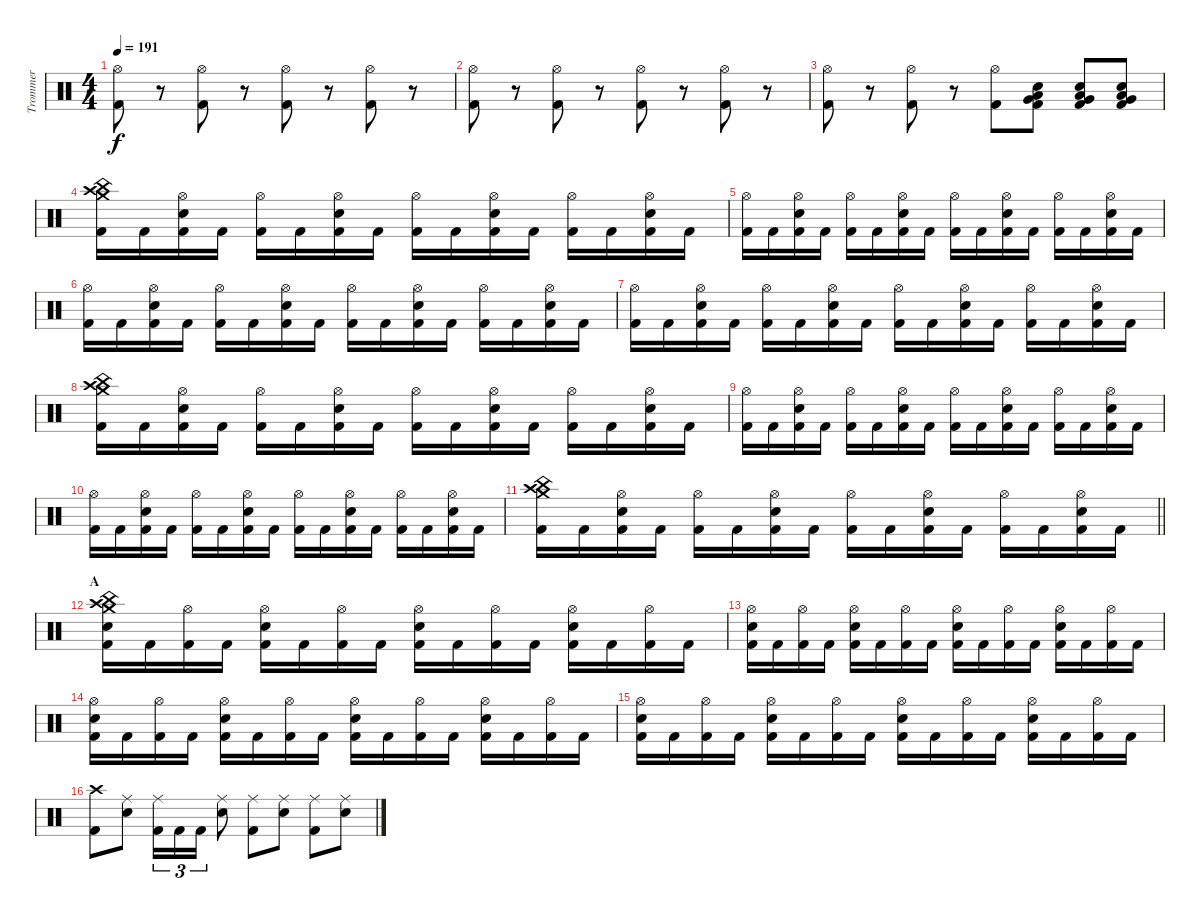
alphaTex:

\track ("Trommer" "Trommer") {instrument percussion}
\staff {score}
\articulation defaults
\ts (4 4)
\tempo 191
\clef neutral
\ks c
("Hi-Hat (open)" "Kick (hit) 2").8{dy f} r.8 ("Hi-Hat (open)" "Kick (hit) 2").8 r.8 ("Hi-Hat (open)" "Kick (hit) 2").8 r.8 ("Hi-Hat (open)" "Kick (hit) 2").8 r.8 |
("Hi-Hat (open)" "Kick (hit) 2").8 r.8 ("Hi-Hat (open)" "Kick (hit) 2").8 r.8 ("Hi-Hat (open)" "Kick (hit) 2").8 r.8 ("Hi-Hat (open)" "Kick (hit) 2").8 r.8 |
("Hi-Hat (open)" "Kick (hit) 2").8 r.8 ("Hi-Hat (open)" "Kick (hit) 2").8 r.8 ("Hi-Hat (open)" "Kick (hit) 2").8 ("Low Floor Tom (hit)" "Very Low Tom (hit)" "Snare (hit) 2" "Kick (hit) 2").8 ("Low Floor Tom (hit)" "Very Low Tom (hit)" "Snare (hit) 2" "Kick (hit) 2").8 ("Low Floor Tom (hit)" "Very Low Tom (hit)" "Snare (hit) 2" "Kick (hit) 2").8 |
("Crash medium (hit)" "Crash high (hit)" "China (hit)" "Kick (hit) 2").16 "Kick (hit) 2".16 ("Hi-Hat (open)" "Snare (hit) 2" "Kick (hit) 2").16 "Kick (hit) 2".16 ("Hi-Hat (open)" "Kick (hit) 2").16 "Kick (hit) 2".16 ("Hi-Hat (open)" "Snare (hit) 2" "Kick (hit) 2").16 "Kick (hit) 2".16 ("Hi-Hat (open)" "Kick (hit) 2").16 "Kick (hit) 2".16 ("Hi-Hat (open)" "Snare (hit) 2" "Kick (hit) 2").16 "Kick (hit) 2".16 ("Hi-Hat (open)" "Kick (hit) 2").16 "Kick (hit) 2".16 ("Hi-Hat (open)" "Snare (hit) 2" "Kick (hit) 2").16 "Kick (hit) 2".16 |
("Hi-Hat (open)" "Kick (hit) 2").16 "Kick (hit) 2".16 ("Hi-Hat (open)" "Snare (hit) 2" "Kick (hit) 2").16 "Kick (hit) 2".16 ("Hi-Hat (open)" "Kick (hit) 2").16 "Kick (hit) 2".16 ("Hi-Hat (open)" "Snare (hit) 2" "Kick (hit) 2").16 "Kick (hit) 2".16 ("Hi-Hat (open)" "Kick (hit) 2").16 "Kick (hit) 2".16 ("Hi-Hat (open)" "Snare (hit) 2" "Kick (hit) 2").16 "Kick (hit) 2".16 ("Hi-Hat (open)" "Kick (hit) 2").16 "Kick (hit) 2".16 ("Hi-Hat (open)" "Snare (hit) 2" "Kick (hit) 2").16 "Kick (hit) 2".16 |
("Hi-Hat (open)" "Kick (hit) 2").16 "Kick (hit) 2".16 ("Hi-Hat (open)" "Snare (hit) 2" "Kick (hit) 2").16 "Kick (hit) 2".16 ("Hi-Hat (open)" "Kick (hit) 2").16 "Kick (hit) 2".16 ("Hi-Hat (open)" "Snare (hit) 2" "Kick (hit) 2").16 "Kick (hit) 2".16 ("Hi-Hat (open)" "Kick (hit) 2").16 "Kick (hit) 2".16 ("Hi-Hat (open)" "Snare (hit) 2" "Kick (hit) 2").16 "Kick (hit) 2".16 ("Hi-Hat (open)" "Kick (hit) 2").16 "Kick (hit) 2".16 ("Hi-Hat (open)" "Snare (hit) 2" "Kick (hit) 2").16 "Kick (hit) 2".16 |
("Hi-Hat (open)" "Kick (hit) 2").16 "Kick (hit) 2".16 ("Hi-Hat (open)" "Snare (hit) 2" "Kick (hit) 2").16 "Kick (hit) 2".16 ("Hi-Hat (open)" "Kick (hit) 2").16 "Kick (hit) 2".16 ("Hi-Hat (open)" "Snare (hit) 2" "Kick (hit) 2").16 "Kick (hit) 2".16 ("Hi-Hat (open)" "Kick (hit) 2").16 "Kick (hit) 2".16 ("Hi-Hat (open)" "Snare (hit) 2" "Kick (hit) 2").16 "Kick (hit) 2".16 ("Hi-Hat (open)" "Kick (hit) 2").16 "Kick (hit) 2".16 ("Hi-Hat (open)" "Snare (hit) 2" "Kick (hit) 2").16 "Kick (hit) 2".16 |
("Crash medium (hit)" "Crash high (hit)" "China (hit)" "Kick (hit) 2").16 "Kick (hit) 2".16 ("Hi-Hat (open)" "Snare (hit) 2" "Kick (hit) 2").16 "Kick (hit) 2".16 ("Hi-Hat (open)" "Kick (hit) 2").16 "Kick (hit) 2".16 ("Hi-Hat (open)" "Snare (hit) 2" "Kick (hit) 2").16 "Kick (hit) 2".16 ("Hi-Hat (open)" "Kick (hit) 2").16 "Kick (hit) 2".16 ("Hi-Hat (open)" "Snare (hit) 2" "Kick (hit) 2").16 "Kick (hit) 2".16 ("Hi-Hat (open)" "Kick (hit) 2").16 "Kick (hit) 2".16 ("Hi-Hat (open)" "Snare (hit) 2" "Kick (hit) 2").16 "Kick (hit) 2".16 |
("Hi-Hat (open)" "Kick (hit) 2").16 "Kick (hit) 2".16 ("Hi-Hat (open)" "Snare (hit) 2" "Kick (hit) 2").16 "Kick (hit) 2".16 ("Hi-Hat (open)" "Kick (hit) 2").16 "Kick (hit) 2".16 ("Hi-Hat (open)" "Snare (hit) 2" "Kick (hit) 2").16 "Kick (hit) 2".16 ("Hi-Hat (open)" "Kick (hit) 2").16 "Kick (hit) 2".16 ("Hi-Hat (open)" "Snare (hit) 2" "Kick (hit) 2").16 "Kick (hit) 2".16 ("Hi-Hat (open)" "Kick (hit) 2").16 "Kick (hit) 2".16 ("Hi-Hat (open)" "Snare (hit) 2" "Kick (hit) 2").16 "Kick (hit) 2".16 |
("Hi-Hat (open)" "Kick (hit) 2").16 "Kick (hit) 2".16 ("Hi-Hat (open)" "Snare (hit) 2" "Kick (hit) 2").16 "Kick (hit) 2".16 ("Hi-Hat (open)" "Kick (hit) 2").16 "Kick (hit) 2".16 ("Hi-Hat (open)" "Snare (hit) 2" "Kick (hit) 2").16 "Kick (hit) 2".16 ("Hi-Hat (open)" "Kick (hit) 2").16 "Kick (hit) 2".16 ("Hi-Hat (open)" "Snare (hit) 2" "Kick (hit) 2").16 "Kick (hit) 2".16 ("Hi-Hat (open)" "Kick (hit) 2").16 "Kick (hit) 2".16 ("Hi-Hat (open)" "Snare (hit) 2" "Kick (hit) 2").16 "Kick (hit) 2".16 |
\barLineRight lightlight
("Crash medium (hit)" "Crash high (hit)" "China (hit)" "Kick (hit) 2").16 "Kick (hit) 2".16 ("Hi-Hat (open)" "Snare (hit) 2" "Kick (hit) 2").16 "Kick (hit) 2".16 ("Hi-Hat (open)" "Kick (hit) 2").16 "Kick (hit) 2".16 ("Hi-Hat (open)" "Snare (hit) 2" "Kick (hit) 2").16 "Kick (hit) 2".16 ("Hi-Hat (open)" "Kick (hit) 2").16 "Kick (hit) 2".16 ("Hi-Hat (open)" "Snare (hit) 2" "Kick (hit) 2").16 "Kick (hit) 2".16 ("Hi-Hat (open)" "Kick (hit) 2").16 "Kick (hit) 2".16 ("Hi-Hat (open)" "Snare (hit) 2" "Kick (hit) 2").16 "Kick (hit) 2".16 |
\section ("" "A")
("Crash medium (hit)" "Crash high (hit)" "China (hit)" "Snare (hit) 2" "Kick (hit) 2").16 "Kick (hit) 2".16 ("Hi-Hat (open)" "Kick (hit) 2").16 "Kick (hit) 2".16 ("Hi-Hat (open)" "Snare (hit) 2" "Kick (hit) 2").16 "Kick (hit) 2".16 ("Hi-Hat (open)" "Kick (hit) 2").16 "Kick (hit) 2".16 ("Hi-Hat (open)" "Snare (hit) 2" "Kick (hit) 2").16 "Kick (hit) 2".16 ("Hi-Hat (open)" "Kick (hit) 2").16 "Kick (hit) 2".16 ("Hi-Hat (open)" "Snare (hit) 2" "Kick (hit) 2").16 "Kick (hit) 2".16 ("Hi-Hat (open)" "Kick (hit) 2").16 "Kick (hit) 2".16 |
("Hi-Hat (open)" "Snare (hit) 2" "Kick (hit) 2").16 "Kick (hit) 2".16 ("Hi-Hat (open)" "Kick (hit) 2").16 "Kick (hit) 2".16 ("Hi-Hat (open)" "Snare (hit) 2" "Kick (hit) 2").16 "Kick (hit) 2".16 ("Hi-Hat (open)" "Kick (hit) 2").16 "Kick (hit) 2".16 ("Hi-Hat (open)" "Snare (hit) 2" "Kick (hit) 2").16 "Kick (hit) 2".16 ("Hi-Hat (open)" "Kick (hit) 2").16 "Kick (hit) 2".16 ("Hi-Hat (open)" "Snare (hit) 2" "Kick (hit) 2").16 "Kick (hit) 2".16 ("Hi-Hat (open)" "Kick (hit) 2").16 "Kick (hit) 2".16 |
("Hi-Hat (open)" "Snare (hit) 2" "Kick (hit) 2").16 "Kick (hit) 2".16 ("Hi-Hat (open)" "Kick (hit) 2").16 "Kick (hit) 2".16 ("Hi-Hat (open)" "Snare (hit) 2" "Kick (hit) 2").16 "Kick (hit) 2".16 ("Hi-Hat (open)" "Kick (hit) 2").16 "Kick (hit) 2".16 ("Hi-Hat (open)" "Snare (hit) 2" "Kick (hit) 2").16 "Kick (hit) 2".16 ("Hi-Hat (open)" "Kick (hit) 2").16 "Kick (hit) 2".16 ("Hi-Hat (open)" "Snare (hit) 2" "Kick (hit) 2").16 "Kick (hit) 2".16 ("Hi-Hat (open)" "Kick (hit) 2").16 "Kick (hit) 2".16 |
("Hi-Hat (open)" "Snare (hit) 2" "Kick (hit) 2").16 "Kick (hit) 2".16 ("Hi-Hat (open)" "Kick (hit) 2").16 "Kick (hit) 2".16 ("Hi-Hat (open)" "Snare (hit) 2" "Kick (hit) 2").16 "Kick (hit) 2".16 ("Hi-Hat (open)" "Kick (hit) 2").16 "Kick (hit) 2".16 ("Hi-Hat (open)" "Snare (hit) 2" "Kick (hit) 2").16 "Kick (hit) 2".16 ("Hi-Hat (open)" "Kick (hit) 2").16 "Kick (hit) 2".16 ("Hi-Hat (open)" "Snare (hit) 2" "Kick (hit) 2").16 "Kick (hit) 2".16 ("Hi-Hat (open)" "Kick (hit) 2").16 "Kick (hit) 2".16 |
("Crash high (hit)" "Kick (hit) 2").8 ("Ride (middle)" "Snare (hit) 2").8 ("Ride (middle)" "Kick (hit) 2").16{tu (3 2)} "Kick (hit) 2".16{tu (3 2)} "Kick (hit) 2".16{tu (3 2)} ("Ride (middle)" "Snare (hit) 2").8 ("Ride (middle)" "Kick (hit) 2").8 ("Ride (middle)" "Snare (hit) 2").8 ("Ride (middle)" "Kick (hit) 2").8 ("Ride (middle)" "Snare (hit) 2").8
